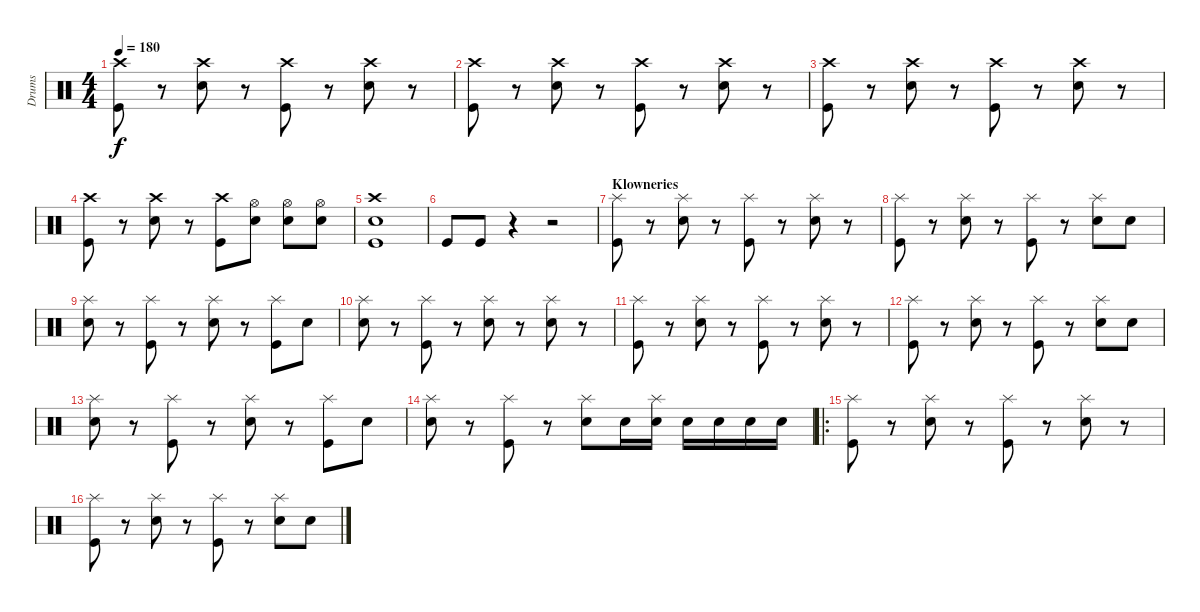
\track ("Drums" "Drums") {instrument percussion}
\staff {score}
\articulation defaults
\ts (4 4)
\tempo 180
\clef neutral
\ks c
("Crash high (hit)" "Kick (hit)").8{dy f} r.8 ("Crash high (hit)" "Electric Snare (hit)").8 r.8 ("Crash high (hit)" "Kick (hit)").8 r.8 ("Crash high (hit)" "Electric Snare (hit)").8 r.8 |
("Crash high (hit)" "Kick (hit)").8 r.8 ("Crash high (hit)" "Electric Snare (hit)").8 r.8 ("Crash high (hit)" "Kick (hit)").8 r.8 ("Crash high (hit)" "Electric Snare (hit)").8 r.8 |
("Crash high (hit)" "Kick (hit)").8 r.8 ("Crash high (hit)" "Electric Snare (hit)").8 r.8 ("Crash high (hit)" "Kick (hit)").8 r.8 ("Crash high (hit)" "Electric Snare (hit)").8 r.8 |
("Crash high (hit)" "Kick (hit)").8 r.8 ("Crash high (hit)" "Electric Snare (hit)").8 r.8 ("Crash high (hit)" "Kick (hit)").8 ("Hi-Hat (open)" "Electric Snare (hit)").8 ("Hi-Hat (open)" "Electric Snare (hit)").8 ("Hi-Hat (open)" "Electric Snare (hit)").8 |
("Crash high (hit)" "Electric Snare (hit)" "Kick (hit)").1 |
"Kick (hit)".8 "Kick (hit)".8 r.4 r.2 |
\section ("" "Klowneries")
("Splash (hit)" "Kick (hit)").8 r.8 ("Splash (hit)" "Electric Snare (hit)").8 r.8 ("Splash (hit)" "Kick (hit)").8 r.8 ("Splash (hit)" "Electric Snare (hit)").8 r.8 |
("Splash (hit)" "Kick (hit)").8 r.8 ("Splash (hit)" "Electric Snare (hit)").8 r.8 ("Splash (hit)" "Kick (hit)").8 r.8 ("Splash (hit)" "Electric Snare (hit)").8 "Electric Snare (hit)".8 |
("Splash (hit)" "Electric Snare (hit)").8 r.8 ("Splash (hit)" "Kick (hit)").8 r.8 ("Splash (hit)" "Electric Snare (hit)").8 r.8 ("Splash (hit)" "Kick (hit)").8 "Electric Snare (hit)".8 |
("Splash (hit)" "Electric Snare (hit)").8 r.8 ("Splash (hit)" "Kick (hit)").8 r.8 ("Splash (hit)" "Electric Snare (hit)").8 r.8 ("Splash (hit)" "Electric Snare (hit)").8 r.8 |
("Splash (hit)" "Kick (hit)").8 r.8 ("Splash (hit)" "Electric Snare (hit)").8 r.8 ("Splash (hit)" "Kick (hit)").8 r.8 ("Splash (hit)" "Electric Snare (hit)").8 r.8 |
("Splash (hit)" "Kick (hit)").8 r.8 ("Splash (hit)" "Electric Snare (hit)").8 r.8 ("Splash (hit)" "Kick (hit)").8 r.8 ("Splash (hit)" "Electric Snare (hit)").8 "Electric Snare (hit)".8 |
("Splash (hit)" "Electric Snare (hit)").8 r.8 ("Splash (hit)" "Kick (hit)").8 r.8 ("Splash (hit)" "Electric Snare (hit)").8 r.8 ("Splash (hit)" "Kick (hit)").8 "Electric Snare (hit)".8 |
("Splash (hit)" "Electric Snare (hit)").8 r.8 ("Splash (hit)" "Kick (hit)").8 r.8 ("Splash (hit)" "Electric Snare (hit)").8 "Electric Snare (hit)".16 ("Splash (hit)" "Electric Snare (hit)").16 "Electric Snare (hit)".16 "Electric Snare (hit)".16 "Electric Snare (hit)".16 "Electric Snare (hit)".16 |
\ro
("Splash (hit)" "Kick (hit)").8 r.8 ("Splash (hit)" "Electric Snare (hit)").8 r.8 ("Splash (hit)" "Kick (hit)").8 r.8 ("Splash (hit)" "Electric Snare (hit)").8 r.8 |
("Splash (hit)" "Kick (hit)").8 r.8 ("Splash (hit)" "Electric Snare (hit)").8 r.8 ("Splash (hit)" "Kick (hit)").8 r.8 ("Splash (hit)" "Electric Snare (hit)").8 "Electric Snare (hit)".8
